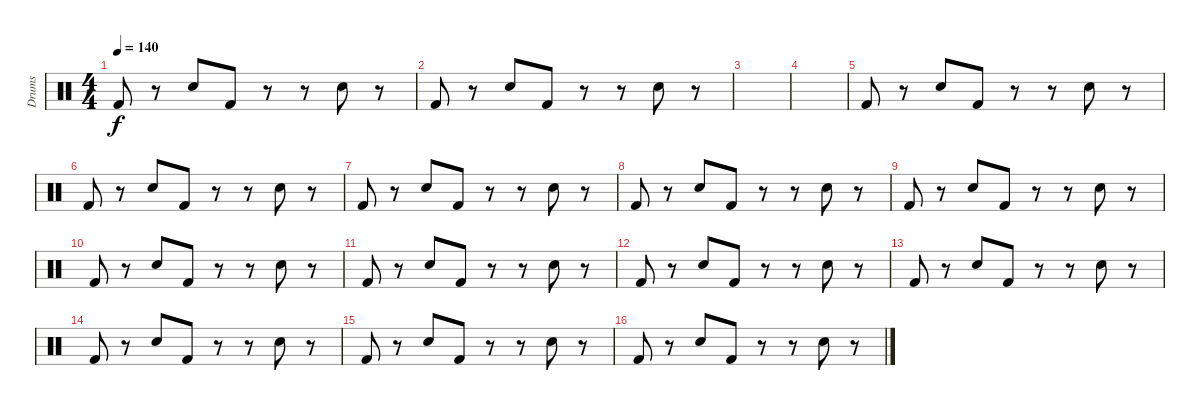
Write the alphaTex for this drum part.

\track ("Drums" "Drums") {instrument percussion}
\staff {score}
\articulation defaults
\ts (4 4)
\tempo 140
\clef neutral
\ks c "Kick (hit) 2".8{dy f}
r.8 "Electric Snare (hit)".8 "Kick (hit) 2".8 r.8 r.8 "Electric Snare (hit)".8 r.8 |
"Kick (hit) 2".8 r.8 "Electric Snare (hit)".8 "Kick (hit) 2".8 r.8 r.8 "Electric Snare (hit)".8 r.8 |
|
|
"Kick (hit) 2".8 r.8 "Electric Snare (hit)".8 "Kick (hit) 2".8 r.8 r.8 "Electric Snare (hit)".8 r.8 |
"Kick (hit) 2".8 r.8 "Electric Snare (hit)".8 "Kick (hit) 2".8 r.8 r.8 "Electric Snare (hit)".8 r.8 |
"Kick (hit) 2".8 r.8 "Electric Snare (hit)".8 "Kick (hit) 2".8 r.8 r.8 "Electric Snare (hit)".8 r.8 |
"Kick (hit) 2".8 r.8 "Electric Snare (hit)".8 "Kick (hit) 2".8 r.8 r.8 "Electric Snare (hit)".8 r.8 |
"Kick (hit) 2".8 r.8 "Electric Snare (hit)".8 "Kick (hit) 2".8 r.8 r.8 "Electric Snare (hit)".8 r.8 |
"Kick (hit) 2".8 r.8 "Electric Snare (hit)".8 "Kick (hit) 2".8 r.8 r.8 "Electric Snare (hit)".8 r.8 |
"Kick (hit) 2".8 r.8 "Electric Snare (hit)".8 "Kick (hit) 2".8 r.8 r.8 "Electric Snare (hit)".8 r.8 |
"Kick (hit) 2".8 r.8 "Electric Snare (hit)".8 "Kick (hit) 2".8 r.8 r.8 "Electric Snare (hit)".8 r.8 |
"Kick (hit) 2".8 r.8 "Electric Snare (hit)".8 "Kick (hit) 2".8 r.8 r.8 "Electric Snare (hit)".8 r.8 |
"Kick (hit) 2".8 r.8 "Electric Snare (hit)".8 "Kick (hit) 2".8 r.8 r.8 "Electric Snare (hit)".8 r.8 |
"Kick (hit) 2".8 r.8 "Electric Snare (hit)".8 "Kick (hit) 2".8 r.8 r.8 "Electric Snare (hit)".8 r.8 |
"Kick (hit) 2".8 r.8 "Electric Snare (hit)".8 "Kick (hit) 2".8 r.8 r.8 "Electric Snare (hit)".8 r.8
